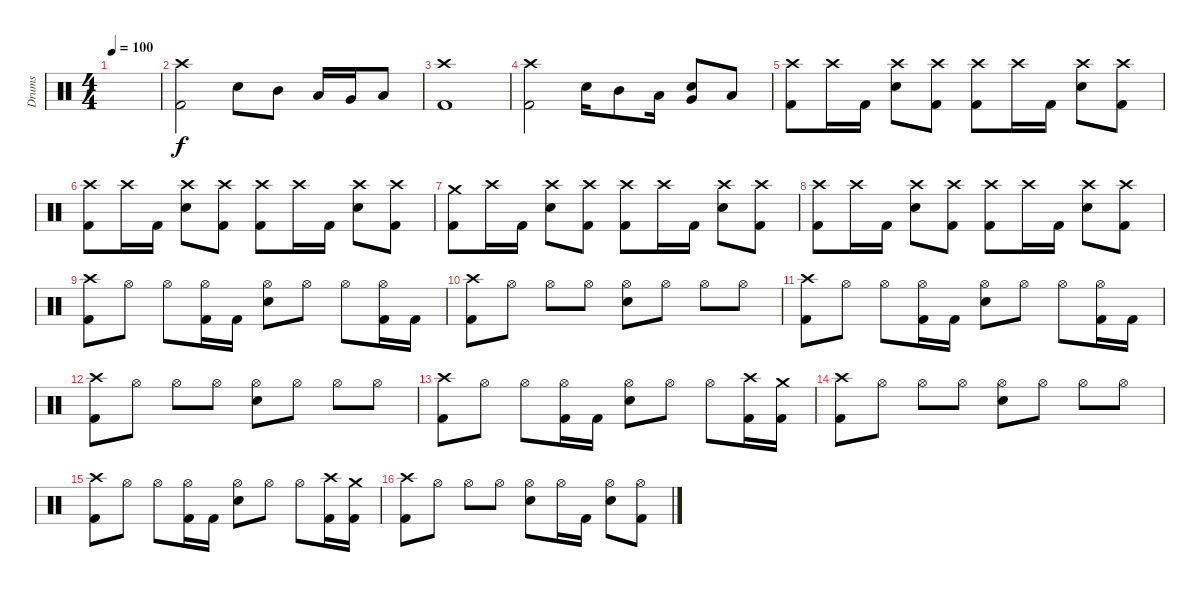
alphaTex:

\track ("Drums" "Drums") {instrument percussion}
\staff {score}
\articulation defaults
\ts (4 4)
\tempo 100
\clef neutral
\ks c
|
("Crash high (hit)" "Kick (hit) 2").2 "Snare (hit) 2".8 "Mid Tom (hit)".8 "Low Tom (hit)".16 "Very Low Tom (hit)".16 "Low Floor Tom (hit)".8 |
("Crash high (hit)" "Kick (hit) 2").1 |
("Crash high (hit)" "Kick (hit) 2").2 "Snare (hit) 2".16 "Mid Tom (hit)".8 "Low Tom (hit)".16 ("Very Low Tom (hit)" "Snare (hit) 2").8 "Low Floor Tom (hit)".8 |
("Crash high (hit)" "Kick (hit) 2").8 "Crash high (hit)".16 "Kick (hit) 2".16 ("Crash high (hit)" "Snare (hit) 2").8 ("Crash high (hit)" "Kick (hit) 2").8 ("Crash high (hit)" "Kick (hit) 2").8 "Crash high (hit)".16 "Kick (hit) 2".16 ("Crash high (hit)" "Snare (hit) 2").8 ("Crash high (hit)" "Kick (hit) 2").8 |
("Crash high (hit)" "Kick (hit) 2").8 "Crash high (hit)".16 "Kick (hit) 2".16 ("Crash high (hit)" "Snare (hit) 2").8 ("Crash high (hit)" "Kick (hit) 2").8 ("Crash high (hit)" "Kick (hit) 2").8 "Crash high (hit)".16 "Kick (hit) 2".16 ("Crash high (hit)" "Snare (hit) 2").8 ("Crash high (hit)" "Kick (hit) 2").8 |
("Crash medium (hit)" "Kick (hit) 2").8 "Crash high (hit)".16 "Kick (hit) 2".16 ("Crash high (hit)" "Snare (hit) 2").8 ("Crash high (hit)" "Kick (hit) 2").8 ("Crash high (hit)" "Kick (hit) 2").8 "Crash high (hit)".16 "Kick (hit) 2".16 ("Crash high (hit)" "Snare (hit) 2").8 ("Crash high (hit)" "Kick (hit) 2").8 |
("Crash high (hit)" "Kick (hit) 2").8 "Crash high (hit)".16 "Kick (hit) 2".16 ("Crash high (hit)" "Snare (hit) 2").8 ("Crash high (hit)" "Kick (hit) 2").8 ("Crash high (hit)" "Kick (hit) 2").8 "Crash high (hit)".16 "Kick (hit) 2".16 ("Crash high (hit)" "Snare (hit) 2").8 ("Crash high (hit)" "Kick (hit) 2").8 |
("Crash high (hit)" "Kick (hit) 2").8 "Hi-Hat (open)".8 "Hi-Hat (open)".8 ("Hi-Hat (open)" "Kick (hit) 2").16 "Kick (hit) 2".16 ("Hi-Hat (open)" "Snare (hit) 2").8 "Hi-Hat (open)".8 "Hi-Hat (open)".8 ("Hi-Hat (open)" "Kick (hit) 2").16 "Kick (hit) 2".16 |
("Crash high (hit)" "Kick (hit) 2").8 "Hi-Hat (open)".8 "Hi-Hat (open)".8 "Hi-Hat (open)".8 ("Hi-Hat (open)" "Snare (hit) 2").8 "Hi-Hat (open)".8 "Hi-Hat (open)".8 "Hi-Hat (open)".8 |
("Crash high (hit)" "Kick (hit) 2").8 "Hi-Hat (open)".8 "Hi-Hat (open)".8 ("Hi-Hat (open)" "Kick (hit) 2").16 "Kick (hit) 2".16 ("Hi-Hat (open)" "Snare (hit) 2").8 "Hi-Hat (open)".8 "Hi-Hat (open)".8 ("Hi-Hat (open)" "Kick (hit) 2").16 "Kick (hit) 2".16 |
("Crash high (hit)" "Kick (hit) 2").8 "Hi-Hat (open)".8 "Hi-Hat (open)".8 "Hi-Hat (open)".8 ("Hi-Hat (open)" "Snare (hit) 2").8 "Hi-Hat (open)".8 "Hi-Hat (open)".8 "Hi-Hat (open)".8 |
("Crash high (hit)" "Kick (hit) 2").8 "Hi-Hat (open)".8 "Hi-Hat (open)".8 ("Hi-Hat (open)" "Kick (hit) 2").16 "Kick (hit) 2".16 ("Hi-Hat (open)" "Snare (hit) 2").8 "Hi-Hat (open)".8 "Hi-Hat (open)".8 ("Crash high (hit)" "Kick (hit) 2").16 ("Crash medium (hit)" "Kick (hit) 2").16 |
("Crash high (hit)" "Kick (hit) 2").8 "Hi-Hat (open)".8 "Hi-Hat (open)".8 "Hi-Hat (open)".8 ("Hi-Hat (open)" "Snare (hit) 2").8 "Hi-Hat (open)".8 "Hi-Hat (open)".8 "Hi-Hat (open)".8 |
("Crash high (hit)" "Kick (hit) 2").8 "Hi-Hat (open)".8 "Hi-Hat (open)".8 ("Hi-Hat (open)" "Kick (hit) 2").16 "Kick (hit) 2".16 ("Hi-Hat (open)" "Snare (hit) 2").8 "Hi-Hat (open)".8 "Hi-Hat (open)".8 ("Crash high (hit)" "Kick (hit) 2").16 ("Crash medium (hit)" "Kick (hit) 2").16 |
("Crash high (hit)" "Kick (hit) 2").8 "Hi-Hat (open)".8 "Hi-Hat (open)".8 "Hi-Hat (open)".8 ("Hi-Hat (open)" "Snare (hit) 2").8 "Hi-Hat (open)".16 "Kick (hit) 2".16 ("Hi-Hat (open)" "Snare (hit) 2").8 ("Hi-Hat (open)" "Kick (hit) 2").8
